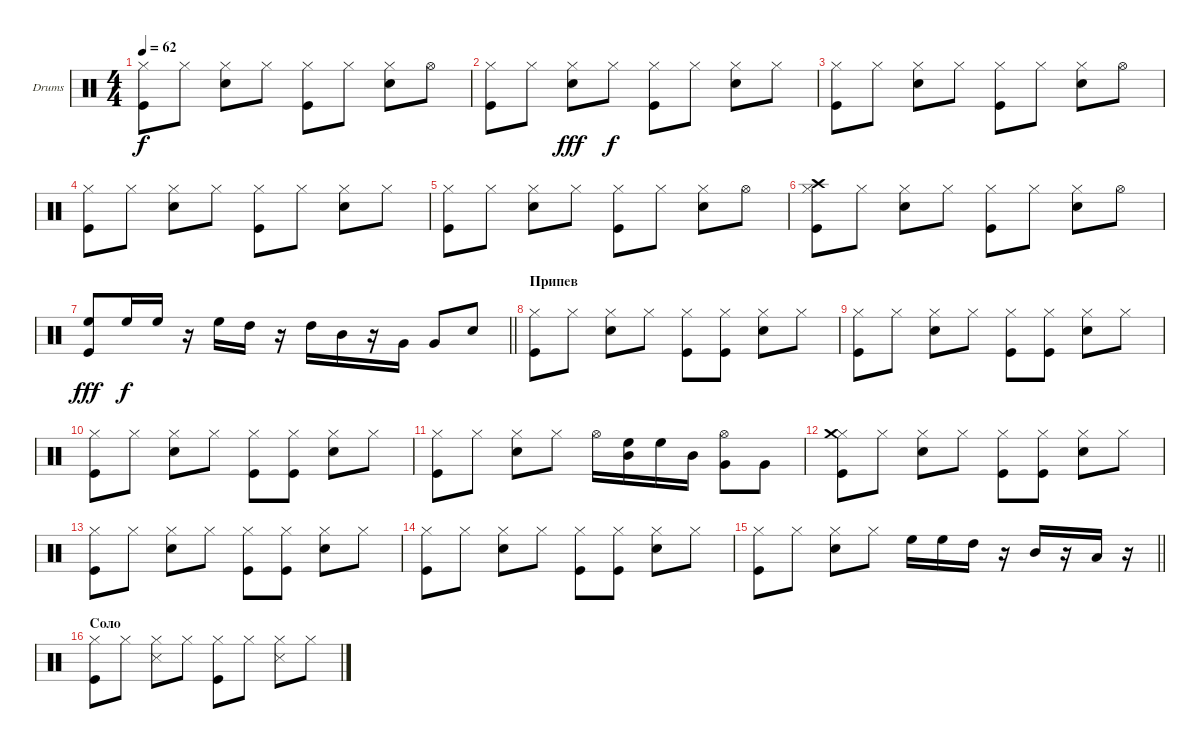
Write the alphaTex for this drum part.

\bracketExtendMode groupsimilarinstruments
\firstSystemTrackNameOrientation horizontal
\otherSystemsTrackNameOrientation horizontal
\track ("Drumkit" "Drums") {instrument percussion}
\staff {score}
\articulation defaults
\ts (4 4)
\tempo 62
\clef neutral
\ks c
("Kick (hit)" "Hi-Hat (closed)").8{dy f} "Hi-Hat (closed)".8 ("Hi-Hat (closed)" "Snare (hit) 2").8 "Hi-Hat (closed)".8 ("Kick (hit)" "Hi-Hat (closed)").8 "Hi-Hat (closed)".8 ("Hi-Hat (closed)" "Snare (hit) 2").8 "Hi-Hat (open)".8 |
("Kick (hit)" "Hi-Hat (closed)").8 "Hi-Hat (closed)".8 ("Snare (hit) 2" "Hi-Hat (closed)").8{dy fff} "Hi-Hat (closed)".8{dy f} ("Kick (hit)" "Hi-Hat (closed)").8 "Hi-Hat (closed)".8 ("Hi-Hat (closed)" "Snare (hit) 2").8 "Hi-Hat (closed)".8 |
("Kick (hit)" "Hi-Hat (closed)").8 "Hi-Hat (closed)".8 ("Hi-Hat (closed)" "Snare (hit) 2").8 "Hi-Hat (closed)".8 ("Kick (hit)" "Hi-Hat (closed)").8 "Hi-Hat (closed)".8 ("Hi-Hat (closed)" "Snare (hit) 2").8 "Hi-Hat (open)".8 |
("Kick (hit)" "Hi-Hat (closed)").8 "Hi-Hat (closed)".8 ("Hi-Hat (closed)" "Snare (hit) 2").8 "Hi-Hat (closed)".8 ("Kick (hit)" "Hi-Hat (closed)").8 "Hi-Hat (closed)".8 ("Hi-Hat (closed)" "Snare (hit) 2").8 "Hi-Hat (closed)".8 |
("Kick (hit)" "Hi-Hat (closed)").8 "Hi-Hat (closed)".8 ("Hi-Hat (closed)" "Snare (hit) 2").8 "Hi-Hat (closed)".8 ("Kick (hit)" "Hi-Hat (closed)").8 "Hi-Hat (closed)".8 ("Hi-Hat (closed)" "Snare (hit) 2").8 "Hi-Hat (open)".8 |
("Kick (hit)" "Hi-Hat (closed)" "Crash high (hit)").8 "Hi-Hat (closed)".8 ("Hi-Hat (closed)" "Snare (hit) 2").8 "Hi-Hat (closed)".8 ("Kick (hit)" "Hi-Hat (closed)").8 "Hi-Hat (closed)".8 ("Hi-Hat (closed)" "Snare (hit) 2").8 "Hi-Hat (open)".8 |
\barLineRight lightlight
("High Floor Tom (hit)" "Kick (hit)").8{dy fff} "High Floor Tom (hit)".16{dy f} "High Floor Tom (hit)".16 r.16 "High Floor Tom (hit)".16 "High Tom (hit)".16 r.16 "High Tom (hit)".16 "Mid Tom (hit)".16 r.16 "Very Low Tom (hit)".16 "Very Low Tom (hit)".8 "Snare (hit) 2".8 |
\section ("" "Припев")
("Kick (hit)" "Hi-Hat (closed)").8 "Hi-Hat (closed)".8 ("Snare (hit) 2" "Hi-Hat (closed)").8 "Hi-Hat (closed)".8 ("Kick (hit)" "Hi-Hat (closed)").8 ("Kick (hit)" "Hi-Hat (closed)").8 ("Snare (hit) 2" "Hi-Hat (closed)").8 "Hi-Hat (closed)".8 |
("Kick (hit)" "Hi-Hat (closed)").8 "Hi-Hat (closed)".8 ("Snare (hit) 2" "Hi-Hat (closed)").8 "Hi-Hat (closed)".8 ("Kick (hit)" "Hi-Hat (closed)").8 ("Kick (hit)" "Hi-Hat (closed)").8 ("Snare (hit) 2" "Hi-Hat (closed)").8 "Hi-Hat (closed)".8 |
("Kick (hit)" "Hi-Hat (closed)").8 "Hi-Hat (closed)".8 ("Snare (hit) 2" "Hi-Hat (closed)").8 "Hi-Hat (closed)".8 ("Kick (hit)" "Hi-Hat (closed)").8 ("Kick (hit)" "Hi-Hat (closed)").8 ("Snare (hit) 2" "Hi-Hat (closed)").8 "Hi-Hat (closed)".8 |
("Kick (hit)" "Hi-Hat (closed)").8 "Hi-Hat (closed)".8 ("Snare (hit) 2" "Hi-Hat (closed)").8 "Hi-Hat (closed)".8 "Hi-Hat (open)".16 ("Mid Tom (hit)" "High Floor Tom (hit)").16 "High Floor Tom (hit)".16 "Mid Tom (hit)".16 ("Hi-Hat (open)" "Very Low Tom (hit)").8 "Very Low Tom (hit)".8 |
("Kick (hit)" "Hi-Hat (closed)" "Crash medium (hit)").8 "Hi-Hat (closed)".8 ("Snare (hit) 2" "Hi-Hat (closed)").8 "Hi-Hat (closed)".8 ("Kick (hit)" "Hi-Hat (closed)").8 ("Kick (hit)" "Hi-Hat (closed)").8 ("Snare (hit) 2" "Hi-Hat (closed)").8 "Hi-Hat (closed)".8 |
("Kick (hit)" "Hi-Hat (closed)").8 "Hi-Hat (closed)".8 ("Snare (hit) 2" "Hi-Hat (closed)").8 "Hi-Hat (closed)".8 ("Kick (hit)" "Hi-Hat (closed)").8 ("Kick (hit)" "Hi-Hat (closed)").8 ("Snare (hit) 2" "Hi-Hat (closed)").8 "Hi-Hat (closed)".8 |
("Kick (hit)" "Hi-Hat (closed)").8 "Hi-Hat (closed)".8 ("Snare (hit) 2" "Hi-Hat (closed)").8 "Hi-Hat (closed)".8 ("Kick (hit)" "Hi-Hat (closed)").8 ("Kick (hit)" "Hi-Hat (closed)").8 ("Snare (hit) 2" "Hi-Hat (closed)").8 "Hi-Hat (closed)".8 |
\barLineRight lightlight
("Kick (hit)" "Hi-Hat (closed)").8 "Hi-Hat (closed)".8 ("Snare (hit) 2" "Hi-Hat (closed)").8 "Hi-Hat (closed)".8 "High Floor Tom (hit)".16 "High Floor Tom (hit)".16 "High Tom (hit)".16 r.16 "Mid Tom (hit)".16 r.16 "Low Tom (hit)".16 r.16 |
\section ("" "Соло")
("Kick (hit)" "Hi-Hat (closed)").8 "Hi-Hat (closed)".8 ("Snare (side stick) 3" "Hi-Hat (closed)").8 "Hi-Hat (closed)".8 ("Kick (hit)" "Hi-Hat (closed)").8 "Hi-Hat (closed)".8 ("Snare (side stick) 3" "Hi-Hat (closed)").8 "Hi-Hat (closed)".8
